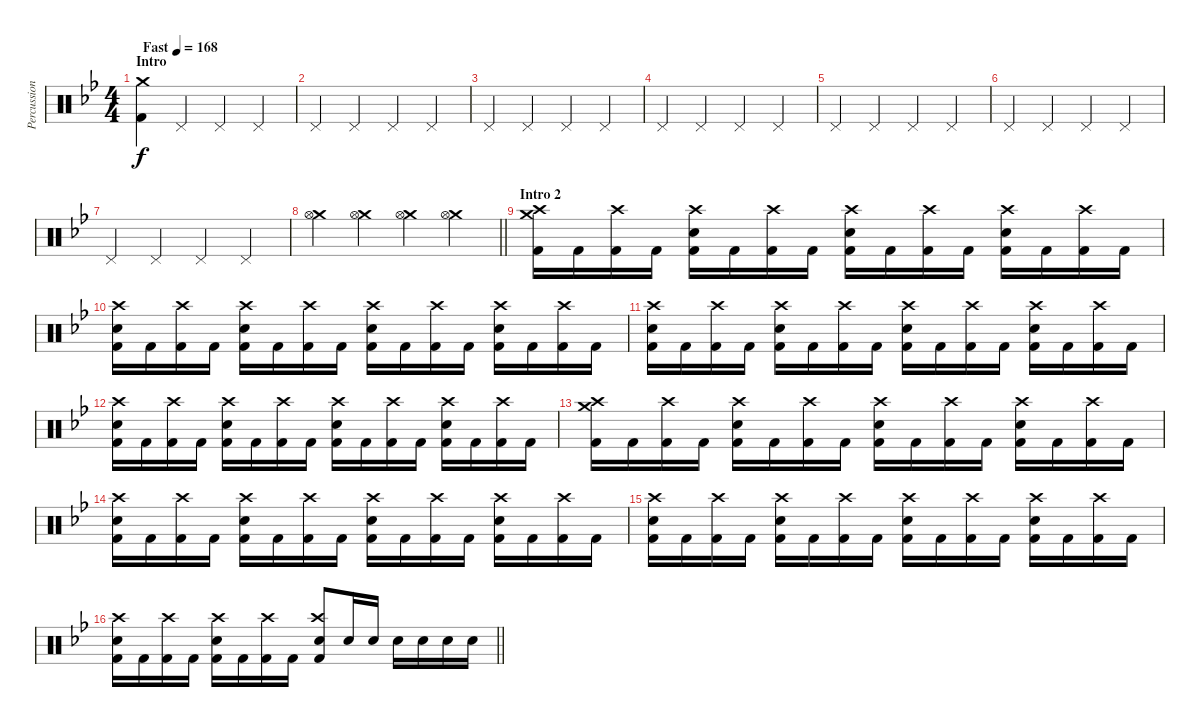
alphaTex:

\track ("Percussion" "Percussion") {instrument percussion}
\staff {score}
\articulation defaults
\ts (4 4)
\section ("" "Intro")
\tempo (168 "Fast")
\clef neutral
\ks bb
("Crash medium (hit)" "Kick (hit) 2").4{dy f} "Pedal Hi-Hat (hit)".4 "Pedal Hi-Hat (hit)".4 "Pedal Hi-Hat (hit)".4 |
"Pedal Hi-Hat (hit)".4 "Pedal Hi-Hat (hit)".4 "Pedal Hi-Hat (hit)".4 "Pedal Hi-Hat (hit)".4 |
"Pedal Hi-Hat (hit)".4 "Pedal Hi-Hat (hit)".4 "Pedal Hi-Hat (hit)".4 "Pedal Hi-Hat (hit)".4 |
"Pedal Hi-Hat (hit)".4 "Pedal Hi-Hat (hit)".4 "Pedal Hi-Hat (hit)".4 "Pedal Hi-Hat (hit)".4 |
"Pedal Hi-Hat (hit)".4 "Pedal Hi-Hat (hit)".4 "Pedal Hi-Hat (hit)".4 "Pedal Hi-Hat (hit)".4 |
"Pedal Hi-Hat (hit)".4 "Pedal Hi-Hat (hit)".4 "Pedal Hi-Hat (hit)".4 "Pedal Hi-Hat (hit)".4 |
"Pedal Hi-Hat (hit)".4 "Pedal Hi-Hat (hit)".4 "Pedal Hi-Hat (hit)".4 "Pedal Hi-Hat (hit)".4 |
\barLineRight lightlight
("Crash medium (hit)" "Hi-Hat (open)").4 ("Crash medium (hit)" "Hi-Hat (open)").4 ("Crash medium (hit)" "Hi-Hat (open)").4 ("Crash medium (hit)" "Hi-Hat (open)").4 |
\section ("" "Intro 2")
("Crash high (hit)" "Crash medium (hit)" "Kick (hit) 2").16 "Kick (hit) 2".16 ("Crash high (hit)" "Kick (hit) 2").16 "Kick (hit) 2".16 ("Crash high (hit)" "Snare (hit) 2" "Kick (hit) 2").16 "Kick (hit) 2".16 ("Crash high (hit)" "Kick (hit) 2").16 "Kick (hit) 2".16 ("Crash high (hit)" "Snare (hit) 2" "Kick (hit) 2").16 "Kick (hit) 2".16 ("Crash high (hit)" "Kick (hit) 2").16 "Kick (hit) 2".16 ("Crash high (hit)" "Snare (hit) 2" "Kick (hit) 2").16 "Kick (hit) 2".16 ("Crash high (hit)" "Kick (hit) 2").16 "Kick (hit) 2".16 |
("Crash high (hit)" "Snare (hit) 2" "Kick (hit) 2").16 "Kick (hit) 2".16 ("Crash high (hit)" "Kick (hit) 2").16 "Kick (hit) 2".16 ("Crash high (hit)" "Snare (hit) 2" "Kick (hit) 2").16 "Kick (hit) 2".16 ("Crash high (hit)" "Kick (hit) 2").16 "Kick (hit) 2".16 ("Crash high (hit)" "Snare (hit) 2" "Kick (hit) 2").16 "Kick (hit) 2".16 ("Crash high (hit)" "Kick (hit) 2").16 "Kick (hit) 2".16 ("Crash high (hit)" "Snare (hit) 2" "Kick (hit) 2").16 "Kick (hit) 2".16 ("Crash high (hit)" "Kick (hit) 2").16 "Kick (hit) 2".16 |
("Crash high (hit)" "Snare (hit) 2" "Kick (hit) 2").16 "Kick (hit) 2".16 ("Crash high (hit)" "Kick (hit) 2").16 "Kick (hit) 2".16 ("Crash high (hit)" "Snare (hit) 2" "Kick (hit) 2").16 "Kick (hit) 2".16 ("Crash high (hit)" "Kick (hit) 2").16 "Kick (hit) 2".16 ("Crash high (hit)" "Snare (hit) 2" "Kick (hit) 2").16 "Kick (hit) 2".16 ("Crash high (hit)" "Kick (hit) 2").16 "Kick (hit) 2".16 ("Crash high (hit)" "Snare (hit) 2" "Kick (hit) 2").16 "Kick (hit) 2".16 ("Crash high (hit)" "Kick (hit) 2").16 "Kick (hit) 2".16 |
("Crash high (hit)" "Snare (hit) 2" "Kick (hit) 2").16 "Kick (hit) 2".16 ("Crash high (hit)" "Kick (hit) 2").16 "Kick (hit) 2".16 ("Crash high (hit)" "Snare (hit) 2" "Kick (hit) 2").16 "Kick (hit) 2".16 ("Crash high (hit)" "Kick (hit) 2").16 "Kick (hit) 2".16 ("Crash high (hit)" "Snare (hit) 2" "Kick (hit) 2").16 "Kick (hit) 2".16 ("Crash high (hit)" "Kick (hit) 2").16 "Kick (hit) 2".16 ("Crash high (hit)" "Snare (hit) 2" "Kick (hit) 2").16 "Kick (hit) 2".16 ("Crash high (hit)" "Kick (hit) 2").16 "Kick (hit) 2".16 |
("Crash high (hit)" "Crash medium (hit)" "Kick (hit) 2").16 "Kick (hit) 2".16 ("Crash high (hit)" "Kick (hit) 2").16 "Kick (hit) 2".16 ("Crash high (hit)" "Snare (hit) 2" "Kick (hit) 2").16 "Kick (hit) 2".16 ("Crash high (hit)" "Kick (hit) 2").16 "Kick (hit) 2".16 ("Crash high (hit)" "Snare (hit) 2" "Kick (hit) 2").16 "Kick (hit) 2".16 ("Crash high (hit)" "Kick (hit) 2").16 "Kick (hit) 2".16 ("Crash high (hit)" "Snare (hit) 2" "Kick (hit) 2").16 "Kick (hit) 2".16 ("Crash high (hit)" "Kick (hit) 2").16 "Kick (hit) 2".16 |
("Crash high (hit)" "Snare (hit) 2" "Kick (hit) 2").16 "Kick (hit) 2".16 ("Crash high (hit)" "Kick (hit) 2").16 "Kick (hit) 2".16 ("Crash high (hit)" "Snare (hit) 2" "Kick (hit) 2").16 "Kick (hit) 2".16 ("Crash high (hit)" "Kick (hit) 2").16 "Kick (hit) 2".16 ("Crash high (hit)" "Snare (hit) 2" "Kick (hit) 2").16 "Kick (hit) 2".16 ("Crash high (hit)" "Kick (hit) 2").16 "Kick (hit) 2".16 ("Crash high (hit)" "Snare (hit) 2" "Kick (hit) 2").16 "Kick (hit) 2".16 ("Crash high (hit)" "Kick (hit) 2").16 "Kick (hit) 2".16 |
("Crash high (hit)" "Snare (hit) 2" "Kick (hit) 2").16 "Kick (hit) 2".16 ("Crash high (hit)" "Kick (hit) 2").16 "Kick (hit) 2".16 ("Crash high (hit)" "Snare (hit) 2" "Kick (hit) 2").16 "Kick (hit) 2".16 ("Crash high (hit)" "Kick (hit) 2").16 "Kick (hit) 2".16 ("Crash high (hit)" "Snare (hit) 2" "Kick (hit) 2").16 "Kick (hit) 2".16 ("Crash high (hit)" "Kick (hit) 2").16 "Kick (hit) 2".16 ("Crash high (hit)" "Snare (hit) 2" "Kick (hit) 2").16 "Kick (hit) 2".16 ("Crash high (hit)" "Kick (hit) 2").16 "Kick (hit) 2".16 |
\barLineRight lightlight
("Crash high (hit)" "Snare (hit) 2" "Kick (hit) 2").16 "Kick (hit) 2".16 ("Crash high (hit)" "Kick (hit) 2").16 "Kick (hit) 2".16 ("Crash high (hit)" "Snare (hit) 2" "Kick (hit) 2").16 "Kick (hit) 2".16 ("Crash high (hit)" "Kick (hit) 2").16 "Kick (hit) 2".16 ("Crash high (hit)" "Snare (hit) 2" "Kick (hit) 2").8 "Snare (hit) 2".16 "Snare (hit) 2".16 "Snare (hit) 2".16 "Snare (hit) 2".16 "Snare (hit) 2".16 "Snare (hit) 2".16
